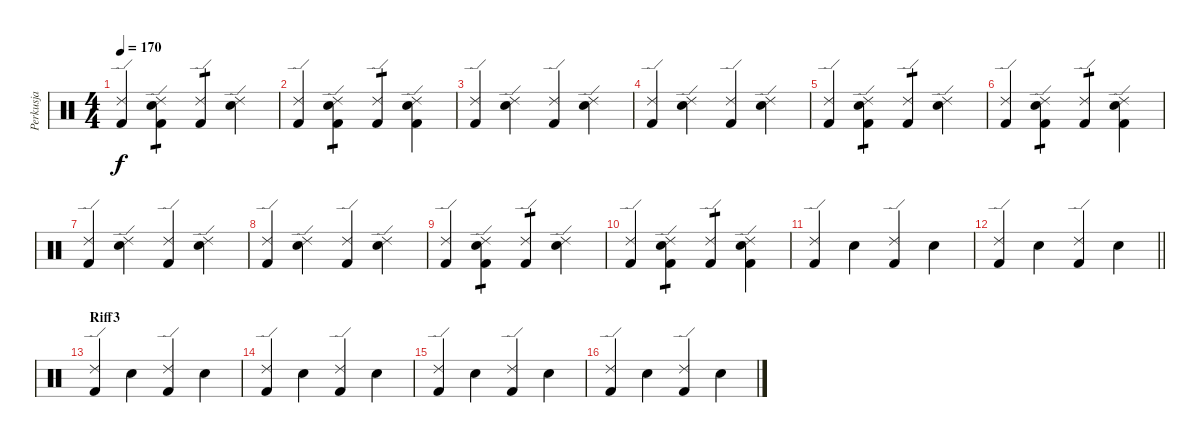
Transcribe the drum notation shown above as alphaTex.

\track ("Perkusja" "Perkusja") {instrument percussion}
\staff {score}
\articulation defaults
\ts (4 4)
\tempo 170
\clef neutral
\ks c
("Ride (edge) 2" "Kick (hit) 2").4{dy f} ("Ride (edge) 2" "Electric Snare (hit)" "Kick (hit) 2").4{tp 1} ("Ride (edge) 2" "Kick (hit) 2").4{tp 1} ("Ride (edge) 2" "Electric Snare (hit)").4 |
("Ride (edge) 2" "Kick (hit) 2").4 ("Ride (edge) 2" "Electric Snare (hit)" "Kick (hit) 2").4{tp 1} ("Ride (edge) 2" "Kick (hit) 2").4{tp 1} ("Ride (edge) 2" "Electric Snare (hit)" "Kick (hit) 2").4 |
("Ride (edge) 2" "Kick (hit) 2").4 ("Ride (edge) 2" "Electric Snare (hit)").4 ("Ride (edge) 2" "Kick (hit) 2").4 ("Ride (edge) 2" "Electric Snare (hit)").4 |
("Ride (edge) 2" "Kick (hit) 2").4 ("Ride (edge) 2" "Electric Snare (hit)").4 ("Ride (edge) 2" "Kick (hit) 2").4 ("Ride (edge) 2" "Electric Snare (hit)").4 |
("Ride (edge) 2" "Kick (hit) 2").4 ("Ride (edge) 2" "Electric Snare (hit)" "Kick (hit) 2").4{tp 1} ("Ride (edge) 2" "Kick (hit) 2").4{tp 1} ("Ride (edge) 2" "Electric Snare (hit)").4 |
("Ride (edge) 2" "Kick (hit) 2").4 ("Ride (edge) 2" "Electric Snare (hit)" "Kick (hit) 2").4{tp 1} ("Ride (edge) 2" "Kick (hit) 2").4{tp 1} ("Ride (edge) 2" "Electric Snare (hit)" "Kick (hit) 2").4 |
("Ride (edge) 2" "Kick (hit) 2").4 ("Ride (edge) 2" "Electric Snare (hit)").4 ("Ride (edge) 2" "Kick (hit) 2").4 ("Ride (edge) 2" "Electric Snare (hit)").4 |
("Ride (edge) 2" "Kick (hit) 2").4 ("Ride (edge) 2" "Electric Snare (hit)").4 ("Ride (edge) 2" "Kick (hit) 2").4 ("Ride (edge) 2" "Electric Snare (hit)").4 |
("Ride (edge) 2" "Kick (hit) 2").4 ("Ride (edge) 2" "Electric Snare (hit)" "Kick (hit) 2").4{tp 1} ("Ride (edge) 2" "Kick (hit) 2").4{tp 1} ("Ride (edge) 2" "Electric Snare (hit)").4 |
("Ride (edge) 2" "Kick (hit) 2").4 ("Ride (edge) 2" "Electric Snare (hit)" "Kick (hit) 2").4{tp 1} ("Ride (edge) 2" "Kick (hit) 2").4{tp 1} ("Ride (edge) 2" "Electric Snare (hit)" "Kick (hit) 2").4 |
("Ride (edge) 2" "Kick (hit) 2").4 "Electric Snare (hit)".4 ("Ride (edge) 2" "Kick (hit) 2").4 "Electric Snare (hit)".4 |
\barLineRight lightlight
("Ride (edge) 2" "Kick (hit) 2").4 "Electric Snare (hit)".4 ("Ride (edge) 2" "Kick (hit) 2").4 "Electric Snare (hit)".4 |
\section ("" "Riff3")
("Ride (edge) 2" "Kick (hit) 2").4 "Electric Snare (hit)".4 ("Ride (edge) 2" "Kick (hit) 2").4 "Electric Snare (hit)".4 |
("Ride (edge) 2" "Kick (hit) 2").4 "Electric Snare (hit)".4 ("Ride (edge) 2" "Kick (hit) 2").4 "Electric Snare (hit)".4 |
("Ride (edge) 2" "Kick (hit) 2").4 "Electric Snare (hit)".4 ("Ride (edge) 2" "Kick (hit) 2").4 "Electric Snare (hit)".4 |
("Ride (edge) 2" "Kick (hit) 2").4 "Electric Snare (hit)".4 ("Ride (edge) 2" "Kick (hit) 2").4 "Electric Snare (hit)".4
